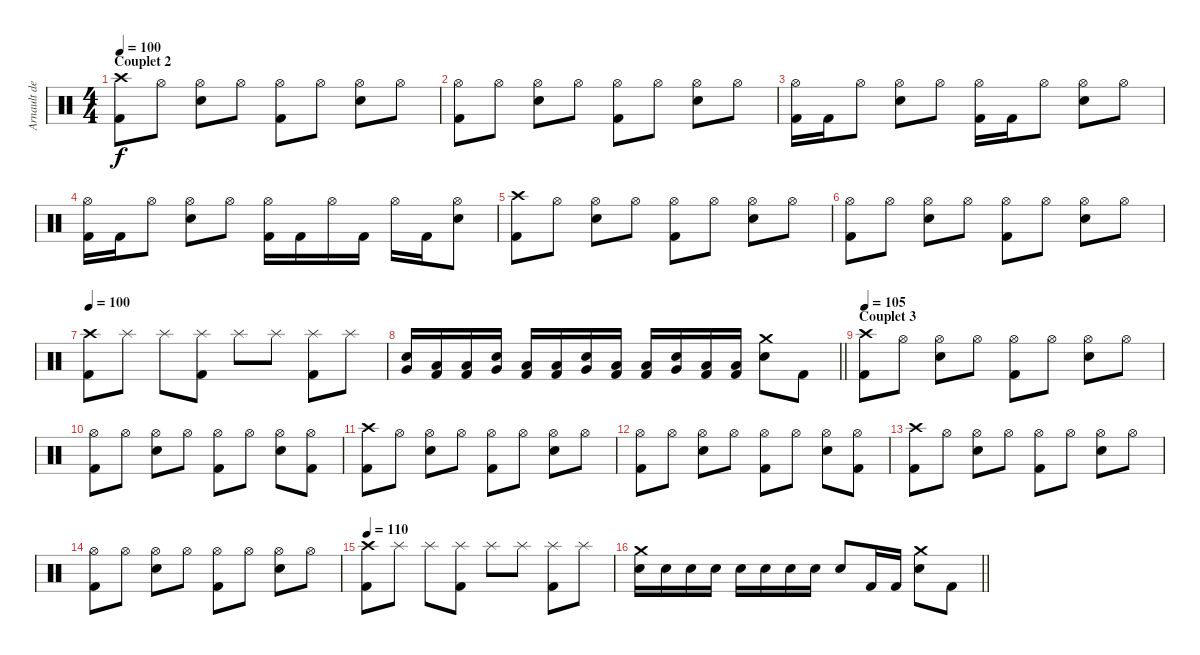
\track ("Arnault de Staël" "Arnault de") {instrument percussion}
\staff {score}
\articulation defaults
\ts (4 4)
\section ("" "Couplet 2")
\tempo 100
\clef neutral
\ks c
("Crash high (hit)" "Kick (hit) 2").8{dy f} "Hi-Hat (open)".8 ("Hi-Hat (open)" "Electric Snare (hit)").8 "Hi-Hat (open)".8 ("Hi-Hat (open)" "Kick (hit) 2").8 "Hi-Hat (open)".8 ("Hi-Hat (open)" "Electric Snare (hit)").8 "Hi-Hat (open)".8 |
("Hi-Hat (open)" "Kick (hit) 2").8 "Hi-Hat (open)".8 ("Hi-Hat (open)" "Electric Snare (hit)").8 "Hi-Hat (open)".8 ("Hi-Hat (open)" "Kick (hit) 2").8 "Hi-Hat (open)".8 ("Hi-Hat (open)" "Electric Snare (hit)").8 "Hi-Hat (open)".8 |
("Hi-Hat (open)" "Kick (hit) 2").16 "Kick (hit) 2".16 "Hi-Hat (open)".8 ("Hi-Hat (open)" "Electric Snare (hit)").8 "Hi-Hat (open)".8 ("Hi-Hat (open)" "Kick (hit) 2").16 "Kick (hit) 2".16 "Hi-Hat (open)".8 ("Hi-Hat (open)" "Electric Snare (hit)").8 "Hi-Hat (open)".8 |
("Hi-Hat (open)" "Kick (hit) 2").16 "Kick (hit) 2".16 "Hi-Hat (open)".8 ("Hi-Hat (open)" "Electric Snare (hit)").8 "Hi-Hat (open)".8 ("Hi-Hat (open)" "Kick (hit) 2").16 "Kick (hit) 2".16 "Hi-Hat (open)".16 "Kick (hit) 2".16 "Hi-Hat (open)".16 "Kick (hit) 2".16 ("Hi-Hat (open)" "Electric Snare (hit)").8 |
("Crash high (hit)" "Kick (hit) 2").8 "Hi-Hat (open)".8 ("Hi-Hat (open)" "Electric Snare (hit)").8 "Hi-Hat (open)".8 ("Hi-Hat (open)" "Kick (hit) 2").8 "Hi-Hat (open)".8 ("Hi-Hat (open)" "Electric Snare (hit)").8 "Hi-Hat (open)".8 |
("Hi-Hat (open)" "Kick (hit) 2").8 "Hi-Hat (open)".8 ("Hi-Hat (open)" "Electric Snare (hit)").8 "Hi-Hat (open)".8 ("Hi-Hat (open)" "Kick (hit) 2").8 "Hi-Hat (open)".8 ("Hi-Hat (open)" "Electric Snare (hit)").8 "Hi-Hat (open)".8 |
\tempo 100
("Crash high (hit)" "Kick (hit) 2").8 "Splash (hit)".8 "Splash (hit)".8 ("Splash (hit)" "Kick (hit) 2").8 "Splash (hit)".8 "Splash (hit)".8 ("Splash (hit)" "Kick (hit) 2").8 "Splash (hit)".8 |
\barLineRight lightlight
("Very Low Tom (hit)" "Snare (hit) 2").16 ("Low Floor Tom (hit)" "Kick (hit) 2").16 ("Low Floor Tom (hit)" "Kick (hit) 2").16 ("Very Low Tom (hit)" "Snare (hit) 2").16 ("Low Floor Tom (hit)" "Kick (hit) 2").16 ("Low Floor Tom (hit)" "Kick (hit) 2").16 ("Very Low Tom (hit)" "Snare (hit) 2").16 ("Low Floor Tom (hit)" "Kick (hit) 2").16 ("Low Floor Tom (hit)" "Kick (hit) 2").16 ("Very Low Tom (hit)" "Snare (hit) 2").16 ("Low Floor Tom (hit)" "Kick (hit) 2").16 ("Low Floor Tom (hit)" "Kick (hit) 2").16 ("Crash medium (hit)" "Electric Snare (hit)").8 "Kick (hit) 2".8 |
\section ("" "Couplet 3")
\tempo 105
("Crash high (hit)" "Kick (hit) 2").8 "Hi-Hat (open)".8 ("Hi-Hat (open)" "Electric Snare (hit)").8 "Hi-Hat (open)".8 ("Hi-Hat (open)" "Kick (hit) 2").8 "Hi-Hat (open)".8 ("Hi-Hat (open)" "Electric Snare (hit)").8 "Hi-Hat (open)".8 |
("Hi-Hat (open)" "Kick (hit) 2").8 "Hi-Hat (open)".8 ("Hi-Hat (open)" "Electric Snare (hit)").8 "Hi-Hat (open)".8 ("Hi-Hat (open)" "Kick (hit) 2").8 "Hi-Hat (open)".8 ("Hi-Hat (open)" "Electric Snare (hit)").8 ("Hi-Hat (open)" "Kick (hit) 2").8 |
("Crash high (hit)" "Kick (hit) 2").8 "Hi-Hat (open)".8 ("Hi-Hat (open)" "Electric Snare (hit)").8 "Hi-Hat (open)".8 ("Hi-Hat (open)" "Kick (hit) 2").8 "Hi-Hat (open)".8 ("Hi-Hat (open)" "Electric Snare (hit)").8 "Hi-Hat (open)".8 |
("Hi-Hat (open)" "Kick (hit) 2").8 "Hi-Hat (open)".8 ("Hi-Hat (open)" "Electric Snare (hit)").8 "Hi-Hat (open)".8 ("Hi-Hat (open)" "Kick (hit) 2").8 "Hi-Hat (open)".8 ("Hi-Hat (open)" "Electric Snare (hit)").8 ("Hi-Hat (open)" "Kick (hit) 2").8 |
("Crash high (hit)" "Kick (hit) 2").8 "Hi-Hat (open)".8 ("Hi-Hat (open)" "Electric Snare (hit)").8 "Hi-Hat (open)".8 ("Hi-Hat (open)" "Kick (hit) 2").8 "Hi-Hat (open)".8 ("Hi-Hat (open)" "Electric Snare (hit)").8 "Hi-Hat (open)".8 |
("Hi-Hat (open)" "Kick (hit) 2").8 "Hi-Hat (open)".8 ("Hi-Hat (open)" "Electric Snare (hit)").8 "Hi-Hat (open)".8 ("Hi-Hat (open)" "Kick (hit) 2").8 "Hi-Hat (open)".8 ("Hi-Hat (open)" "Electric Snare (hit)").8 "Hi-Hat (open)".8 |
\tempo 110
("Crash high (hit)" "Kick (hit) 2").8 "Splash (hit)".8 "Splash (hit)".8 ("Splash (hit)" "Kick (hit) 2").8 "Splash (hit)".8 "Splash (hit)".8 ("Splash (hit)" "Kick (hit) 2").8 "Splash (hit)".8 |
\barLineRight lightlight
("Crash medium (hit)" "Electric Snare (hit)").16 "Electric Snare (hit)".16 "Electric Snare (hit)".16 "Electric Snare (hit)".16 "Electric Snare (hit)".16 "Electric Snare (hit)".16 "Electric Snare (hit)".16 "Electric Snare (hit)".16 "Electric Snare (hit)".8 "Kick (hit) 2".16 "Kick (hit) 2".16 ("Crash medium (hit)" "Electric Snare (hit)").8 "Kick (hit) 2".8
